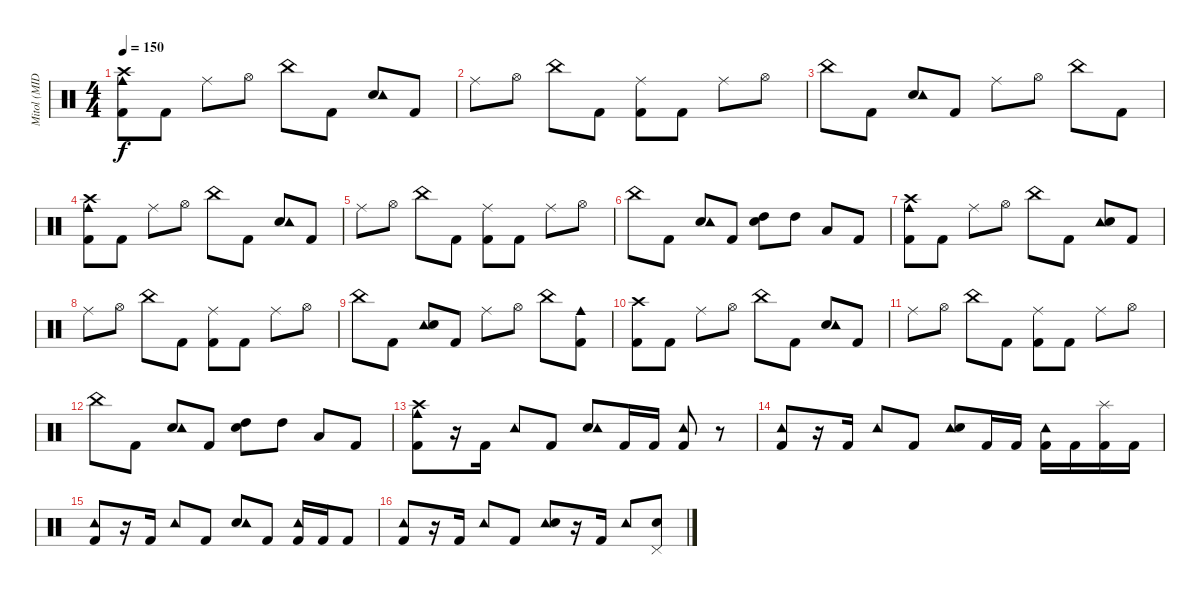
\track ("Mitol (MIDI)" "Mitol (MID") {instrument percussion}
\staff {score}
\articulation defaults
\ts (4 4)
\tempo 150
\clef neutral
\ks c
("Crash high (hit)" "Kick (hit) 2" "Cowbell medium (hit)").8{dy f} "Kick (hit) 2".8 "Ride (middle)".8 "Hi-Hat (open)".8 "China (hit)".8 "Kick (hit) 2".8 ("Electric Snare (hit)" "Tambourine (hit)").8 "Kick (hit) 2".8 |
"Ride (middle)".8 "Hi-Hat (open)".8 "China (hit)".8 "Kick (hit) 2".8 ("Ride (middle)" "Kick (hit) 2").8 "Kick (hit) 2".8 "Ride (middle)".8 "Hi-Hat (open)".8 |
"China (hit)".8 "Kick (hit) 2".8 ("Electric Snare (hit)" "Tambourine (hit)").8 "Kick (hit) 2".8 "Ride (middle)".8 "Hi-Hat (open)".8 "China (hit)".8 "Kick (hit) 2".8 |
("Cowbell medium (hit)" "Kick (hit) 2" "Crash high (hit)").8 "Kick (hit) 2".8 "Ride (middle)".8 "Hi-Hat (open)".8 "China (hit)".8 "Kick (hit) 2".8 ("Electric Snare (hit)" "Tambourine (hit)").8 "Kick (hit) 2".8 |
"Ride (middle)".8 "Hi-Hat (open)".8 "China (hit)".8 "Kick (hit) 2".8 ("Ride (middle)" "Kick (hit) 2").8 "Kick (hit) 2".8 "Ride (middle)".8 "Hi-Hat (open)".8 |
"China (hit)".8 "Kick (hit) 2".8 ("Electric Snare (hit)" "Tambourine (hit)").8 "Kick (hit) 2".8 ("High Tom (hit)" "Electric Snare (hit)").8 "High Tom (hit)".8 "Low Tom (hit)".8 "Kick (hit) 2".8 |
("Cowbell medium (hit)" "Kick (hit) 2" "Crash high (hit)").8 "Kick (hit) 2".8 "Ride (middle)".8 "Hi-Hat (open)".8 "China (hit)".8 "Kick (hit) 2".8 ("Tambourine (hit)" "Electric Snare (hit)").8 "Kick (hit) 2".8 |
"Ride (middle)".8 "Hi-Hat (open)".8 "China (hit)".8 "Kick (hit) 2".8 ("Ride (middle)" "Kick (hit) 2").8 "Kick (hit) 2".8 "Ride (middle)".8 "Hi-Hat (open)".8 |
"China (hit)".8 "Kick (hit) 2".8 ("Tambourine (hit)" "Electric Snare (hit)").8 "Kick (hit) 2".8 "Ride (middle)".8 "Hi-Hat (open)".8 "China (hit)".8 ("Kick (hit) 2" "Cowbell medium (hit)").8 |
("Crash high (hit)" "Kick (hit) 2").8 "Kick (hit) 2".8 "Ride (middle)".8 "Hi-Hat (open)".8 "China (hit)".8 "Kick (hit) 2".8 ("Electric Snare (hit)" "Tambourine (hit)").8 "Kick (hit) 2".8 |
"Ride (middle)".8 "Hi-Hat (open)".8 "China (hit)".8 "Kick (hit) 2".8 ("Kick (hit) 2" "Ride (middle)").8 "Kick (hit) 2".8 "Ride (middle)".8 "Hi-Hat (open)".8 |
"China (hit)".8 "Kick (hit) 2".8 ("Electric Snare (hit)" "Tambourine (hit)").8 "Kick (hit) 2".8 ("High Tom (hit)" "Electric Snare (hit)").8 "High Tom (hit)".8 "Low Tom (hit)".8 "Kick (hit) 2".8 |
("Cowbell medium (hit)" "Crash high (hit)" "Kick (hit) 2").8 r.16 "Kick (hit) 2".16 "Tambourine (hit)".8 "Kick (hit) 2".8 ("Electric Snare (hit)" "Tambourine (hit)").8 "Kick (hit) 2".16 "Kick (hit) 2".16 ("Tambourine (hit)" "Kick (hit) 2").8 r.8 |
("Tambourine (hit)" "Kick (hit) 2").8 r.16 "Kick (hit) 2".16 "Tambourine (hit)".8 "Kick (hit) 2".8 ("Tambourine (hit)" "Electric Snare (hit)").8 "Kick (hit) 2".16 "Kick (hit) 2".16 ("Kick (hit) 2" "Tambourine (hit)").16 "Kick (hit) 2".16 ("Splash (hit)" "Kick (hit) 2").16 "Kick (hit) 2".16 |
("Tambourine (hit)" "Kick (hit) 2").8 r.16 "Kick (hit) 2".16 "Tambourine (hit)".8 "Kick (hit) 2".8 ("Electric Snare (hit)" "Tambourine (hit)").8 "Kick (hit) 2".8 ("Kick (hit) 2" "Tambourine (hit)").16 "Kick (hit) 2".16 "Kick (hit) 2".8 |
("Kick (hit) 2" "Tambourine (hit)").8 r.16 "Kick (hit) 2".16 "Tambourine (hit)".8 "Kick (hit) 2".8 ("Tambourine (hit)" "Electric Snare (hit)").8 r.16 "Kick (hit) 2".16 "Tambourine (hit)".8 ("Electric Snare (hit)" "Pedal Hi-Hat (hit)").8
